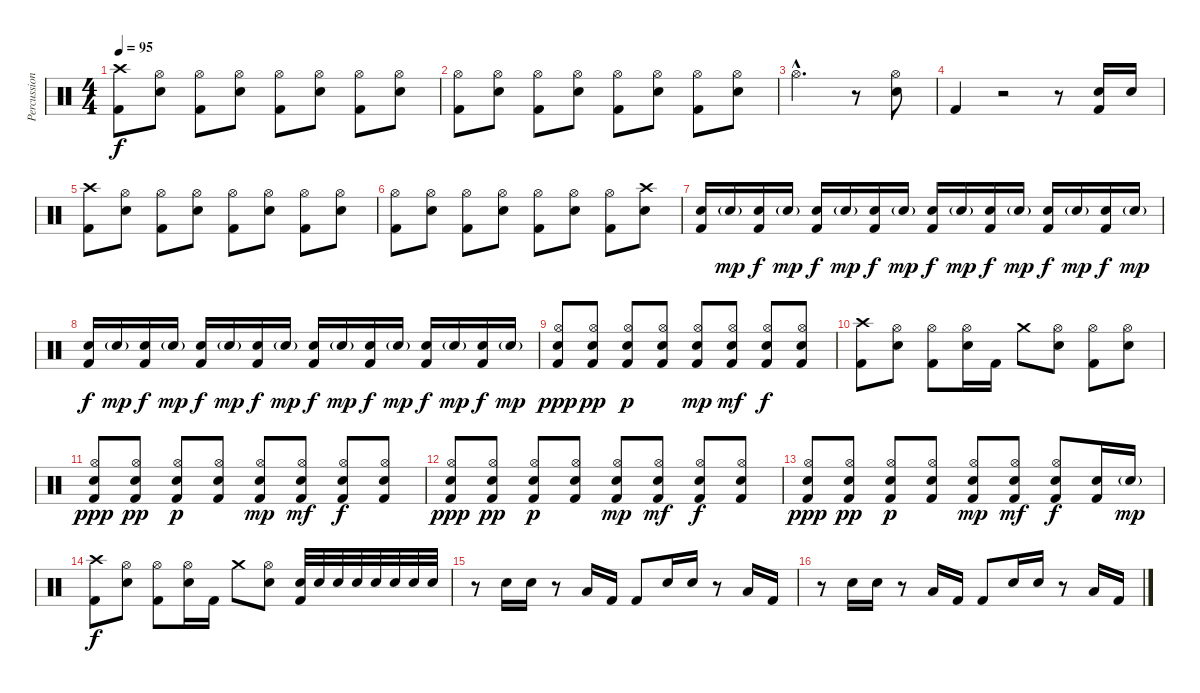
\track ("Percussion" "Percussion") {instrument percussion}
\staff {score}
\articulation defaults
\ts (4 4)
\tempo 95
\clef neutral
\ks c
("Crash high (hit)" "Kick (hit) 2").8{dy f} ("Hi-Hat (open)" "Electric Snare (hit)").8 ("Hi-Hat (open)" "Kick (hit) 2").8 ("Hi-Hat (open)" "Electric Snare (hit)").8 ("Hi-Hat (open)" "Kick (hit) 2").8 ("Hi-Hat (open)" "Electric Snare (hit)").8 ("Hi-Hat (open)" "Kick (hit) 2").8 ("Hi-Hat (open)" "Electric Snare (hit)").8 |
("Hi-Hat (open)" "Kick (hit) 2").8 ("Hi-Hat (open)" "Electric Snare (hit)").8 ("Hi-Hat (open)" "Kick (hit) 2").8 ("Hi-Hat (open)" "Electric Snare (hit)").8 ("Hi-Hat (open)" "Kick (hit) 2").8 ("Hi-Hat (open)" "Electric Snare (hit)").8 ("Hi-Hat (open)" "Kick (hit) 2").8 ("Hi-Hat (open)" "Electric Snare (hit)").8 |
"Hi-Hat (open)"{hac}.2{d} r.8 ("Hi-Hat (open)" "Electric Snare (hit)").8 |
"Kick (hit) 2".4 r.2 r.8 ("Electric Snare (hit)" "Kick (hit) 2").16 "Electric Snare (hit)".16 |
("Crash high (hit)" "Kick (hit) 2").8 ("Hi-Hat (open)" "Electric Snare (hit)").8 ("Hi-Hat (open)" "Kick (hit) 2").8 ("Hi-Hat (open)" "Electric Snare (hit)").8 ("Hi-Hat (open)" "Kick (hit) 2").8 ("Hi-Hat (open)" "Electric Snare (hit)").8 ("Hi-Hat (open)" "Kick (hit) 2").8 ("Hi-Hat (open)" "Electric Snare (hit)").8 |
("Hi-Hat (open)" "Kick (hit) 2").8 ("Hi-Hat (open)" "Electric Snare (hit)").8 ("Hi-Hat (open)" "Kick (hit) 2").8 ("Hi-Hat (open)" "Electric Snare (hit)").8 ("Hi-Hat (open)" "Kick (hit) 2").8 ("Hi-Hat (open)" "Electric Snare (hit)").8 ("Hi-Hat (open)" "Kick (hit) 2").8 ("Crash high (hit)" "Electric Snare (hit)").8 |
("Electric Snare (hit)" "Kick (hit) 2").16 "Electric Snare (hit)"{g}.16{dy mp} ("Electric Snare (hit)" "Kick (hit) 2").16{dy f} "Electric Snare (hit)"{g}.16{dy mp} ("Electric Snare (hit)" "Kick (hit) 2").16{dy f} "Electric Snare (hit)"{g}.16{dy mp} ("Electric Snare (hit)" "Kick (hit) 2").16{dy f} "Electric Snare (hit)"{g}.16{dy mp} ("Electric Snare (hit)" "Kick (hit) 2").16{dy f} "Electric Snare (hit)"{g}.16{dy mp} ("Electric Snare (hit)" "Kick (hit) 2").16{dy f} "Electric Snare (hit)"{g}.16{dy mp} ("Electric Snare (hit)" "Kick (hit) 2").16{dy f} "Electric Snare (hit)"{g}.16{dy mp} ("Electric Snare (hit)" "Kick (hit) 2").16{dy f} "Electric Snare (hit)"{g}.16{dy mp} |
("Electric Snare (hit)" "Kick (hit) 2").16{dy f} "Electric Snare (hit)"{g}.16{dy mp} ("Electric Snare (hit)" "Kick (hit) 2").16{dy f} "Electric Snare (hit)"{g}.16{dy mp} ("Electric Snare (hit)" "Kick (hit) 2").16{dy f} "Electric Snare (hit)"{g}.16{dy mp} ("Electric Snare (hit)" "Kick (hit) 2").16{dy f} "Electric Snare (hit)"{g}.16{dy mp} ("Electric Snare (hit)" "Kick (hit) 2").16{dy f} "Electric Snare (hit)"{g}.16{dy mp} ("Electric Snare (hit)" "Kick (hit) 2").16{dy f} "Electric Snare (hit)"{g}.16{dy mp} ("Electric Snare (hit)" "Kick (hit) 2").16{dy f} "Electric Snare (hit)"{g}.16{dy mp} ("Electric Snare (hit)" "Kick (hit) 2").16{dy f} "Electric Snare (hit)"{g}.16{dy mp} |
("Hi-Hat (open)" "Electric Snare (hit)" "Kick (hit) 2").8{dy ppp} ("Hi-Hat (open)" "Electric Snare (hit)" "Kick (hit) 2").8{dy pp} ("Hi-Hat (open)" "Electric Snare (hit)" "Kick (hit) 2").8{dy p} ("Hi-Hat (open)" "Electric Snare (hit)" "Kick (hit) 2").8 ("Hi-Hat (open)" "Electric Snare (hit)" "Kick (hit) 2").8{dy mp} ("Hi-Hat (open)" "Electric Snare (hit)" "Kick (hit) 2").8{dy mf} ("Hi-Hat (open)" "Electric Snare (hit)" "Kick (hit) 2").8{dy f} ("Hi-Hat (open)" "Electric Snare (hit)" "Kick (hit) 2").8 |
("Crash high (hit)" "Kick (hit) 2").8 ("Hi-Hat (open)" "Electric Snare (hit)").8 ("Hi-Hat (open)" "Kick (hit) 2").8 ("Hi-Hat (open)" "Electric Snare (hit)").16 "Kick (hit) 2".16 "Crash medium (hit)".8 ("Hi-Hat (open)" "Electric Snare (hit)").8 ("Hi-Hat (open)" "Kick (hit) 2").8 ("Hi-Hat (open)" "Electric Snare (hit)").8 |
("Hi-Hat (open)" "Electric Snare (hit)" "Kick (hit) 2").8{dy ppp} ("Hi-Hat (open)" "Electric Snare (hit)" "Kick (hit) 2").8{dy pp} ("Hi-Hat (open)" "Electric Snare (hit)" "Kick (hit) 2").8{dy p} ("Hi-Hat (open)" "Electric Snare (hit)" "Kick (hit) 2").8 ("Hi-Hat (open)" "Electric Snare (hit)" "Kick (hit) 2").8{dy mp} ("Hi-Hat (open)" "Electric Snare (hit)" "Kick (hit) 2").8{dy mf} ("Hi-Hat (open)" "Electric Snare (hit)" "Kick (hit) 2").8{dy f} ("Hi-Hat (open)" "Electric Snare (hit)" "Kick (hit) 2").8 |
("Hi-Hat (open)" "Electric Snare (hit)" "Kick (hit) 2").8{dy ppp} ("Hi-Hat (open)" "Electric Snare (hit)" "Kick (hit) 2").8{dy pp} ("Hi-Hat (open)" "Electric Snare (hit)" "Kick (hit) 2").8{dy p} ("Hi-Hat (open)" "Electric Snare (hit)" "Kick (hit) 2").8 ("Hi-Hat (open)" "Electric Snare (hit)" "Kick (hit) 2").8{dy mp} ("Hi-Hat (open)" "Electric Snare (hit)" "Kick (hit) 2").8{dy mf} ("Hi-Hat (open)" "Electric Snare (hit)" "Kick (hit) 2").8{dy f} ("Hi-Hat (open)" "Electric Snare (hit)" "Kick (hit) 2").8 |
("Hi-Hat (open)" "Electric Snare (hit)" "Kick (hit) 2").8{dy ppp} ("Hi-Hat (open)" "Electric Snare (hit)" "Kick (hit) 2").8{dy pp} ("Hi-Hat (open)" "Electric Snare (hit)" "Kick (hit) 2").8{dy p} ("Hi-Hat (open)" "Electric Snare (hit)" "Kick (hit) 2").8 ("Hi-Hat (open)" "Electric Snare (hit)" "Kick (hit) 2").8{dy mp} ("Hi-Hat (open)" "Electric Snare (hit)" "Kick (hit) 2").8{dy mf} ("Hi-Hat (open)" "Electric Snare (hit)" "Kick (hit) 2").8{dy f} ("Electric Snare (hit)" "Kick (hit) 2").16 "Electric Snare (hit)"{g}.16{dy mp} |
("Crash high (hit)" "Kick (hit) 2").8{dy f} ("Hi-Hat (open)" "Electric Snare (hit)").8 ("Hi-Hat (open)" "Kick (hit) 2").8 ("Hi-Hat (open)" "Electric Snare (hit)").16 "Kick (hit) 2".16 "Crash medium (hit)".8 ("Hi-Hat (open)" "Electric Snare (hit)").8 ("Electric Snare (hit)" "Kick (hit) 2").32 "Electric Snare (hit)".32 "Electric Snare (hit)".32 "Electric Snare (hit)".32 "Electric Snare (hit)".32 "Electric Snare (hit)".32 "Electric Snare (hit)".32 "Electric Snare (hit)".32 |
r.8 "Electric Snare (hit)".16 "Electric Snare (hit)".16 r.8 "Low Floor Tom (hit)".16 "Kick (hit) 2".16 "Kick (hit) 2".8 "Electric Snare (hit)".16 "Electric Snare (hit)".16 r.8 "Low Floor Tom (hit)".16 "Kick (hit) 2".16 |
r.8 "Electric Snare (hit)".16 "Electric Snare (hit)".16 r.8 "Low Floor Tom (hit)".16 "Kick (hit) 2".16 "Kick (hit) 2".8 "Electric Snare (hit)".16 "Electric Snare (hit)".16 r.8 "Low Floor Tom (hit)".16 "Kick (hit) 2".16
